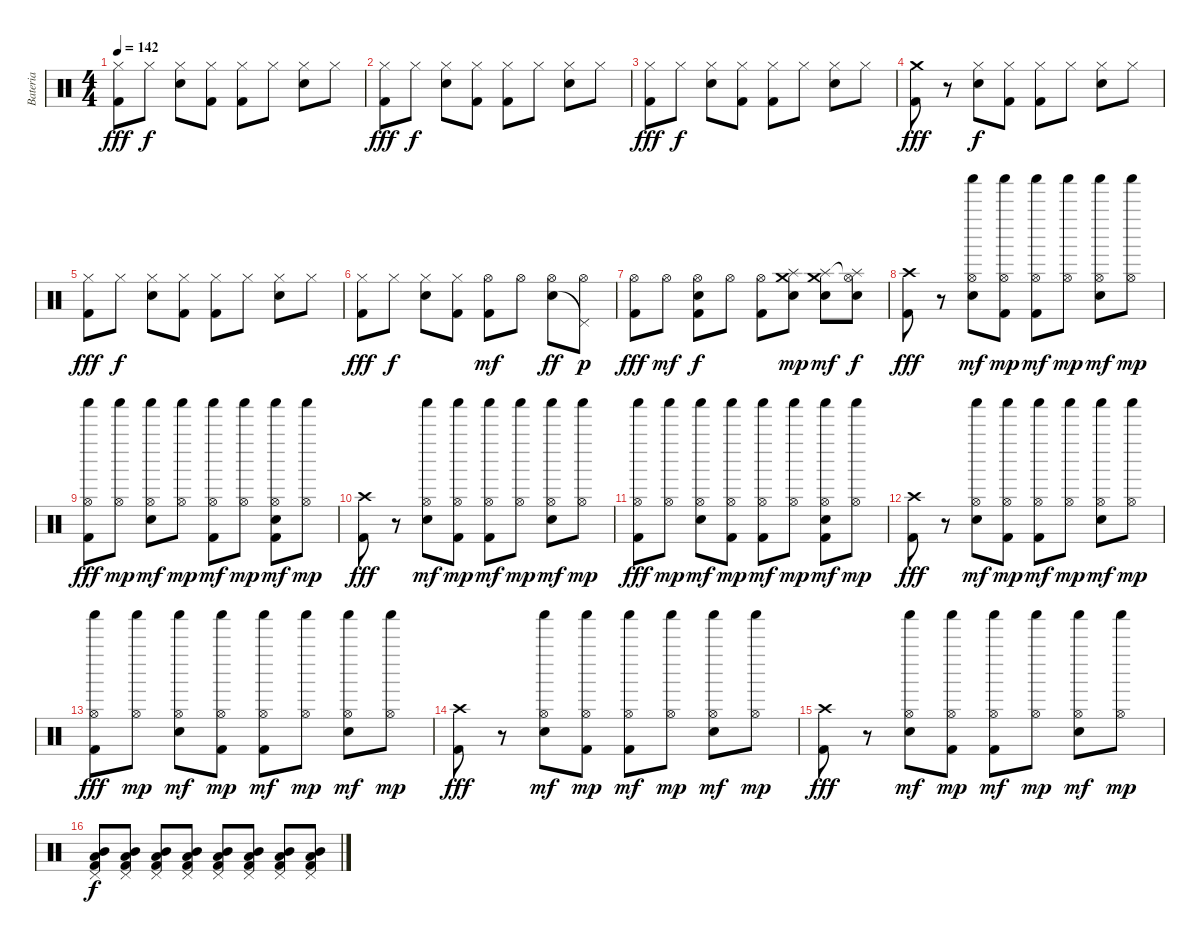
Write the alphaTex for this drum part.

\track ("Bateria" "Bateria") {instrument percussion}
\staff {score}
\articulation defaults
\ts (4 4)
\tempo 142
\clef neutral
\ks c
("Hi-Hat (closed)" "Kick (hit) 2").8{dy fff} "Hi-Hat (closed)".8{dy f} ("Hi-Hat (closed)" "Electric Snare (hit)").8 ("Hi-Hat (closed)" "Kick (hit) 2").8 ("Hi-Hat (closed)" "Kick (hit) 2").8 "Hi-Hat (closed)".8 ("Hi-Hat (closed)" "Electric Snare (hit)").8 "Hi-Hat (closed)".8 |
("Hi-Hat (closed)" "Kick (hit) 2").8{dy fff} "Hi-Hat (closed)".8{dy f} ("Hi-Hat (closed)" "Electric Snare (hit)").8 ("Hi-Hat (closed)" "Kick (hit) 2").8 ("Hi-Hat (closed)" "Kick (hit) 2").8 "Hi-Hat (closed)".8 ("Hi-Hat (closed)" "Electric Snare (hit)").8 "Hi-Hat (closed)".8 |
("Hi-Hat (closed)" "Kick (hit) 2").8{dy fff} "Hi-Hat (closed)".8{dy f} ("Hi-Hat (closed)" "Electric Snare (hit)").8 ("Hi-Hat (closed)" "Kick (hit) 2").8 ("Hi-Hat (closed)" "Kick (hit) 2").8 "Hi-Hat (closed)".8 ("Hi-Hat (closed)" "Electric Snare (hit)").8 "Hi-Hat (closed)".8 |
("Crash medium (hit)" "Kick (hit) 2").8{dy fff} r.8 ("Hi-Hat (closed)" "Electric Snare (hit)").8{dy f} ("Hi-Hat (closed)" "Kick (hit) 2").8 ("Hi-Hat (closed)" "Kick (hit) 2").8 "Hi-Hat (closed)".8 ("Hi-Hat (closed)" "Electric Snare (hit)").8 "Hi-Hat (closed)".8 |
("Hi-Hat (closed)" "Kick (hit) 2").8{dy fff} "Hi-Hat (closed)".8{dy f} ("Hi-Hat (closed)" "Electric Snare (hit)").8 ("Hi-Hat (closed)" "Kick (hit) 2").8 ("Hi-Hat (closed)" "Kick (hit) 2").8 "Hi-Hat (closed)".8 ("Hi-Hat (closed)" "Electric Snare (hit)").8 "Hi-Hat (closed)".8 |
("Hi-Hat (closed)" "Kick (hit) 2").8{dy fff} "Hi-Hat (closed)".8{dy f} ("Hi-Hat (closed)" "Electric Snare (hit)").8 ("Hi-Hat (closed)" "Kick (hit) 2").8 ("Hi-Hat (open)" "Kick (hit) 2").8{dy mf} "Hi-Hat (open)".8 ("Hi-Hat (open)" "Electric Snare (hit)").8{dy ff} ("Hi-Hat (open)" "Pedal Hi-Hat (hit)"{t}).8{dy p} |
("Hi-Hat (open)" "Kick (hit) 2").8{dy fff} "Hi-Hat (open)".8{dy mf} ("Hi-Hat (open)" "Electric Snare (hit)" "Kick (hit) 2").8{dy f} "Hi-Hat (open)".8 ("Hi-Hat (open)" "Kick (hit) 2").8 ("Crash medium (hit)" "Splash (hit)" "Electric Snare (hit)").8{dy mp} ("Crash medium (hit)" "Splash (hit)" "Electric Snare (hit)").8{dy mf} ("Splash (hit)" "Hi-Hat (open)"{t} "Electric Snare (hit)").8{dy f} |
("Crash high (hit)" "Kick (hit) 2").8{dy fff} r.8 ("Shaker (hit)" "Hi-Hat (open)" "Electric Snare (hit)").8{dy mf} ("Shaker (hit)" "Hi-Hat (open)" "Kick (hit) 2").8{dy mp} ("Shaker (hit)" "Hi-Hat (open)" "Kick (hit) 2").8{dy mf} ("Shaker (hit)" "Hi-Hat (open)").8{dy mp} ("Shaker (hit)" "Hi-Hat (open)" "Electric Snare (hit)").8{dy mf} ("Shaker (hit)" "Hi-Hat (open)").8{dy mp} |
("Shaker (hit)" "Hi-Hat (open)" "Kick (hit) 2").8{dy fff} ("Shaker (hit)" "Hi-Hat (open)").8{dy mp} ("Shaker (hit)" "Hi-Hat (open)" "Electric Snare (hit)").8{dy mf} ("Shaker (hit)" "Hi-Hat (open)").8{dy mp} ("Shaker (hit)" "Hi-Hat (open)" "Kick (hit) 2").8{dy mf} ("Shaker (hit)" "Hi-Hat (open)").8{dy mp} ("Shaker (hit)" "Hi-Hat (open)" "Electric Snare (hit)" "Kick (hit) 2").8{dy mf} ("Shaker (hit)" "Hi-Hat (open)").8{dy mp} |
("Crash high (hit)" "Kick (hit) 2").8{dy fff} r.8 ("Shaker (hit)" "Hi-Hat (open)" "Electric Snare (hit)").8{dy mf} ("Shaker (hit)" "Hi-Hat (open)" "Kick (hit) 2").8{dy mp} ("Shaker (hit)" "Hi-Hat (open)" "Kick (hit) 2").8{dy mf} ("Shaker (hit)" "Hi-Hat (open)").8{dy mp} ("Shaker (hit)" "Hi-Hat (open)" "Electric Snare (hit)").8{dy mf} ("Shaker (hit)" "Hi-Hat (open)").8{dy mp} |
("Shaker (hit)" "Hi-Hat (open)" "Kick (hit) 2").8{dy fff} ("Shaker (hit)" "Hi-Hat (open)").8{dy mp} ("Shaker (hit)" "Hi-Hat (open)" "Electric Snare (hit)").8{dy mf} ("Shaker (hit)" "Hi-Hat (open)" "Kick (hit) 2").8{dy mp} ("Shaker (hit)" "Hi-Hat (open)" "Kick (hit) 2").8{dy mf} ("Shaker (hit)" "Hi-Hat (open)").8{dy mp} ("Shaker (hit)" "Hi-Hat (open)" "Electric Snare (hit)" "Kick (hit) 2").8{dy mf} ("Shaker (hit)" "Hi-Hat (open)").8{dy mp} |
("Crash high (hit)" "Kick (hit) 2").8{dy fff} r.8 ("Shaker (hit)" "Hi-Hat (open)" "Electric Snare (hit)").8{dy mf} ("Shaker (hit)" "Hi-Hat (open)" "Kick (hit) 2").8{dy mp} ("Shaker (hit)" "Hi-Hat (open)" "Kick (hit) 2").8{dy mf} ("Shaker (hit)" "Hi-Hat (open)").8{dy mp} ("Shaker (hit)" "Hi-Hat (open)" "Electric Snare (hit)").8{dy mf} ("Shaker (hit)" "Hi-Hat (open)").8{dy mp} |
("Shaker (hit)" "Hi-Hat (open)" "Kick (hit) 2").8{dy fff} ("Shaker (hit)" "Hi-Hat (open)").8{dy mp} ("Shaker (hit)" "Hi-Hat (open)" "Electric Snare (hit)").8{dy mf} ("Shaker (hit)" "Hi-Hat (open)" "Kick (hit) 2").8{dy mp} ("Shaker (hit)" "Hi-Hat (open)" "Kick (hit) 2").8{dy mf} ("Shaker (hit)" "Hi-Hat (open)").8{dy mp} ("Shaker (hit)" "Hi-Hat (open)" "Electric Snare (hit)").8{dy mf} ("Shaker (hit)" "Hi-Hat (open)").8{dy mp} |
("Crash high (hit)" "Kick (hit) 2").8{dy fff} r.8 ("Shaker (hit)" "Hi-Hat (open)" "Electric Snare (hit)").8{dy mf} ("Shaker (hit)" "Hi-Hat (open)" "Kick (hit) 2").8{dy mp} ("Shaker (hit)" "Hi-Hat (open)" "Kick (hit) 2").8{dy mf} ("Shaker (hit)" "Hi-Hat (open)").8{dy mp} ("Shaker (hit)" "Hi-Hat (open)" "Electric Snare (hit)").8{dy mf} ("Shaker (hit)" "Hi-Hat (open)").8{dy mp} |
("Crash high (hit)" "Kick (hit) 2").8{dy fff} r.8 ("Shaker (hit)" "Hi-Hat (open)" "Electric Snare (hit)").8{dy mf} ("Shaker (hit)" "Hi-Hat (open)" "Kick (hit) 2").8{dy mp} ("Shaker (hit)" "Hi-Hat (open)" "Kick (hit) 2").8{dy mf} ("Shaker (hit)" "Hi-Hat (open)").8{dy mp} ("Shaker (hit)" "Hi-Hat (open)" "Electric Snare (hit)").8{dy mf} ("Shaker (hit)" "Hi-Hat (open)").8{dy mp} |
("Low Tom (hit)" "Mid Tom (hit)" "Pedal Hi-Hat (hit)" "Kick (hit) 2").8{dy f} ("Low Tom (hit)" "Mid Tom (hit)" "Pedal Hi-Hat (hit)" "Kick (hit) 2").8 ("Low Tom (hit)" "Mid Tom (hit)" "Pedal Hi-Hat (hit)" "Kick (hit) 2").8 ("Low Tom (hit)" "Mid Tom (hit)" "Pedal Hi-Hat (hit)" "Kick (hit) 2").8 ("Low Tom (hit)" "Mid Tom (hit)" "Pedal Hi-Hat (hit)" "Kick (hit) 2").8 ("Low Tom (hit)" "Mid Tom (hit)" "Pedal Hi-Hat (hit)" "Kick (hit) 2").8 ("Low Tom (hit)" "Mid Tom (hit)" "Pedal Hi-Hat (hit)" "Kick (hit) 2").8 ("Low Tom (hit)" "Mid Tom (hit)" "Pedal Hi-Hat (hit)" "Kick (hit) 2").8
